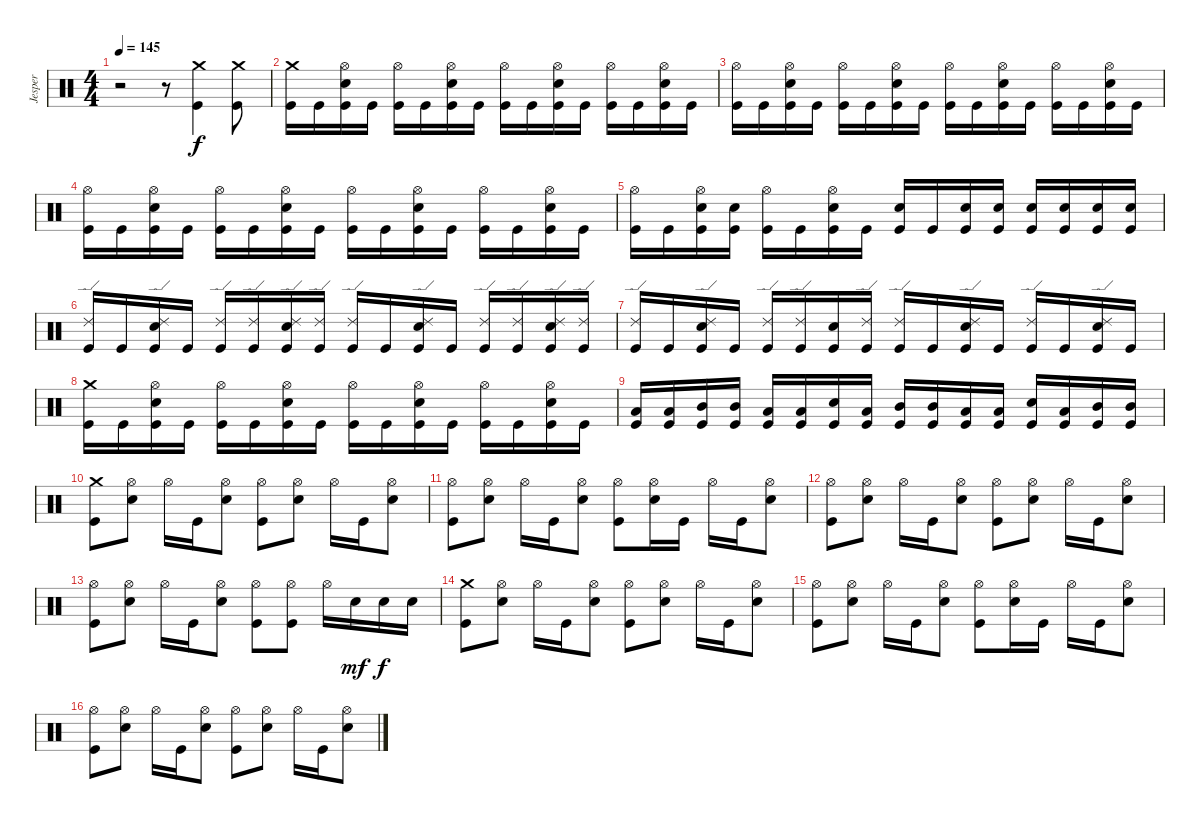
\track ("Jesper" "Jesper") {instrument percussion}
\staff {score}
\articulation defaults
\ts (4 4)
\tempo 145
\clef neutral
\ks c
r.2{dy f} r.8 ("Crash medium (hit)" "Kick (hit)").4 ("Crash medium (hit)" "Kick (hit)").8 |
("Crash medium (hit)" "Kick (hit)").16 "Kick (hit)".16 ("Hi-Hat (open)" "Electric Snare (hit)" "Kick (hit)").16 "Kick (hit)".16 ("Hi-Hat (open)" "Kick (hit)").16 "Kick (hit)".16 ("Hi-Hat (open)" "Electric Snare (hit)" "Kick (hit)").16 "Kick (hit)".16 ("Hi-Hat (open)" "Kick (hit)").16 "Kick (hit)".16 ("Hi-Hat (open)" "Electric Snare (hit)" "Kick (hit)").16 "Kick (hit)".16 ("Hi-Hat (open)" "Kick (hit)").16 "Kick (hit)".16 ("Hi-Hat (open)" "Electric Snare (hit)" "Kick (hit)").16 "Kick (hit)".16 |
("Hi-Hat (open)" "Kick (hit)").16 "Kick (hit)".16 ("Hi-Hat (open)" "Electric Snare (hit)" "Kick (hit)").16 "Kick (hit)".16 ("Hi-Hat (open)" "Kick (hit)").16 "Kick (hit)".16 ("Hi-Hat (open)" "Electric Snare (hit)" "Kick (hit)").16 "Kick (hit)".16 ("Hi-Hat (open)" "Kick (hit)").16 "Kick (hit)".16 ("Hi-Hat (open)" "Electric Snare (hit)" "Kick (hit)").16 "Kick (hit)".16 ("Hi-Hat (open)" "Kick (hit)").16 "Kick (hit)".16 ("Hi-Hat (open)" "Electric Snare (hit)" "Kick (hit)").16 "Kick (hit)".16 |
("Hi-Hat (open)" "Kick (hit)").16 "Kick (hit)".16 ("Hi-Hat (open)" "Electric Snare (hit)" "Kick (hit)").16 "Kick (hit)".16 ("Hi-Hat (open)" "Kick (hit)").16 "Kick (hit)".16 ("Hi-Hat (open)" "Electric Snare (hit)" "Kick (hit)").16 "Kick (hit)".16 ("Hi-Hat (open)" "Kick (hit)").16 "Kick (hit)".16 ("Hi-Hat (open)" "Electric Snare (hit)" "Kick (hit)").16 "Kick (hit)".16 ("Hi-Hat (open)" "Kick (hit)").16 "Kick (hit)".16 ("Hi-Hat (open)" "Electric Snare (hit)" "Kick (hit)").16 "Kick (hit)".16 |
("Hi-Hat (open)" "Kick (hit)").16 "Kick (hit)".16 ("Hi-Hat (open)" "Electric Snare (hit)" "Kick (hit)").16 ("Electric Snare (hit)" "Kick (hit)").16 ("Hi-Hat (open)" "Kick (hit)").16 "Kick (hit)".16 ("Hi-Hat (open)" "Electric Snare (hit)" "Kick (hit)").16 "Kick (hit)".16 ("Electric Snare (hit)" "Kick (hit)").16 "Kick (hit)".16 ("Electric Snare (hit)" "Kick (hit)").16 ("Electric Snare (hit)" "Kick (hit)").16 ("Electric Snare (hit)" "Kick (hit)").16 ("Electric Snare (hit)" "Kick (hit)").16 ("Electric Snare (hit)" "Kick (hit)").16 ("Electric Snare (hit)" "Kick (hit)").16 |
("Ride (edge) 2" "Kick (hit)").16 "Kick (hit)".16 ("Ride (edge) 2" "Electric Snare (hit)" "Kick (hit)").16 "Kick (hit)".16 ("Ride (edge) 2" "Kick (hit)").16 ("Ride (edge) 2" "Kick (hit)").16 ("Ride (edge) 2" "Electric Snare (hit)" "Kick (hit)").16 ("Ride (edge) 2" "Kick (hit)").16 ("Ride (edge) 2" "Kick (hit)").16 "Kick (hit)".16 ("Ride (edge) 2" "Electric Snare (hit)" "Kick (hit)").16 "Kick (hit)".16 ("Ride (edge) 2" "Kick (hit)").16 ("Ride (edge) 2" "Kick (hit)").16 ("Ride (edge) 2" "Electric Snare (hit)" "Kick (hit)").16 ("Ride (edge) 2" "Kick (hit)").16 |
("Ride (edge) 2" "Kick (hit)").16 "Kick (hit)".16 ("Ride (edge) 2" "Electric Snare (hit)" "Kick (hit)").16 "Kick (hit)".16 ("Ride (edge) 2" "Kick (hit)").16 ("Ride (edge) 2" "Kick (hit)").16 ("Electric Snare (hit)" "Kick (hit)").16 ("Ride (edge) 2" "Kick (hit)").16 ("Ride (edge) 2" "Kick (hit)").16 "Kick (hit)".16 ("Ride (edge) 2" "Electric Snare (hit)" "Kick (hit)").16 "Kick (hit)".16 ("Ride (edge) 2" "Kick (hit)").16 "Kick (hit)".16 ("Ride (edge) 2" "Electric Snare (hit)" "Kick (hit)").16 "Kick (hit)".16 |
("Crash medium (hit)" "Kick (hit)").16 "Kick (hit)".16 ("Hi-Hat (open)" "Electric Snare (hit)" "Kick (hit)").16 "Kick (hit)".16 ("Hi-Hat (open)" "Kick (hit)").16 "Kick (hit)".16 ("Hi-Hat (open)" "Electric Snare (hit)" "Kick (hit)").16 "Kick (hit)".16 ("Hi-Hat (open)" "Kick (hit)").16 "Kick (hit)".16 ("Hi-Hat (open)" "Electric Snare (hit)" "Kick (hit)").16 "Kick (hit)".16 ("Hi-Hat (open)" "Kick (hit)").16 "Kick (hit)".16 ("Hi-Hat (open)" "Electric Snare (hit)" "Kick (hit)").16 "Kick (hit)".16 |
("Low Tom (hit)" "Kick (hit)").16 ("Low Tom (hit)" "Kick (hit)").16 ("Mid Tom (hit)" "Kick (hit)").16 ("Mid Tom (hit)" "Kick (hit)").16 ("Low Floor Tom (hit)" "Kick (hit)").16 ("Low Floor Tom (hit)" "Kick (hit)").16 ("Electric Snare (hit)" "Kick (hit)").16 ("Low Tom (hit)" "Kick (hit)").16 ("Mid Tom (hit)" "Kick (hit)").16 ("Mid Tom (hit)" "Kick (hit)").16 ("Low Floor Tom (hit)" "Kick (hit)").16 ("Low Floor Tom (hit)" "Kick (hit)").16 ("Electric Snare (hit)" "Kick (hit)").16 ("Low Tom (hit)" "Kick (hit)").16 ("Mid Tom (hit)" "Kick (hit)").16 ("Mid Tom (hit)" "Kick (hit)").16 |
("Crash medium (hit)" "Kick (hit)").8 ("Hi-Hat (open)" "Electric Snare (hit)").8 "Hi-Hat (open)".16 "Kick (hit)".16 ("Hi-Hat (open)" "Electric Snare (hit)").8 ("Hi-Hat (open)" "Kick (hit)").8 ("Hi-Hat (open)" "Electric Snare (hit)").8 "Hi-Hat (open)".16 "Kick (hit)".16 ("Hi-Hat (open)" "Electric Snare (hit)").8 |
("Hi-Hat (open)" "Kick (hit)").8 ("Hi-Hat (open)" "Electric Snare (hit)").8 "Hi-Hat (open)".16 "Kick (hit)".16 ("Hi-Hat (open)" "Electric Snare (hit)").8 ("Hi-Hat (open)" "Kick (hit)").8 ("Hi-Hat (open)" "Electric Snare (hit)").16 "Kick (hit)".16 "Hi-Hat (open)".16 "Kick (hit)".16 ("Hi-Hat (open)" "Electric Snare (hit)").8 |
("Hi-Hat (open)" "Kick (hit)").8 ("Hi-Hat (open)" "Electric Snare (hit)").8 "Hi-Hat (open)".16 "Kick (hit)".16 ("Hi-Hat (open)" "Electric Snare (hit)").8 ("Hi-Hat (open)" "Kick (hit)").8 ("Hi-Hat (open)" "Electric Snare (hit)").8 "Hi-Hat (open)".16 "Kick (hit)".16 ("Hi-Hat (open)" "Electric Snare (hit)").8 |
("Hi-Hat (open)" "Kick (hit)").8 ("Hi-Hat (open)" "Electric Snare (hit)").8 "Hi-Hat (open)".16 "Kick (hit)".16 ("Hi-Hat (open)" "Electric Snare (hit)").8 ("Hi-Hat (open)" "Kick (hit)").8 ("Hi-Hat (open)" "Kick (hit)").8 "Hi-Hat (open)".16 "Electric Snare (hit)".16{dy mf} "Electric Snare (hit)".16{dy f} "Electric Snare (hit)".16 |
("Crash medium (hit)" "Kick (hit)").8 ("Hi-Hat (open)" "Electric Snare (hit)").8 "Hi-Hat (open)".16 "Kick (hit)".16 ("Hi-Hat (open)" "Electric Snare (hit)").8 ("Hi-Hat (open)" "Kick (hit)").8 ("Hi-Hat (open)" "Electric Snare (hit)").8 "Hi-Hat (open)".16 "Kick (hit)".16 ("Hi-Hat (open)" "Electric Snare (hit)").8 |
("Hi-Hat (open)" "Kick (hit)").8 ("Hi-Hat (open)" "Electric Snare (hit)").8 "Hi-Hat (open)".16 "Kick (hit)".16 ("Hi-Hat (open)" "Electric Snare (hit)").8 ("Hi-Hat (open)" "Kick (hit)").8 ("Hi-Hat (open)" "Electric Snare (hit)").16 "Kick (hit)".16 "Hi-Hat (open)".16 "Kick (hit)".16 ("Hi-Hat (open)" "Electric Snare (hit)").8 |
("Hi-Hat (open)" "Kick (hit)").8 ("Hi-Hat (open)" "Electric Snare (hit)").8 "Hi-Hat (open)".16 "Kick (hit)".16 ("Hi-Hat (open)" "Electric Snare (hit)").8 ("Hi-Hat (open)" "Kick (hit)").8 ("Hi-Hat (open)" "Electric Snare (hit)").8 "Hi-Hat (open)".16 "Kick (hit)".16 ("Hi-Hat (open)" "Electric Snare (hit)").8
